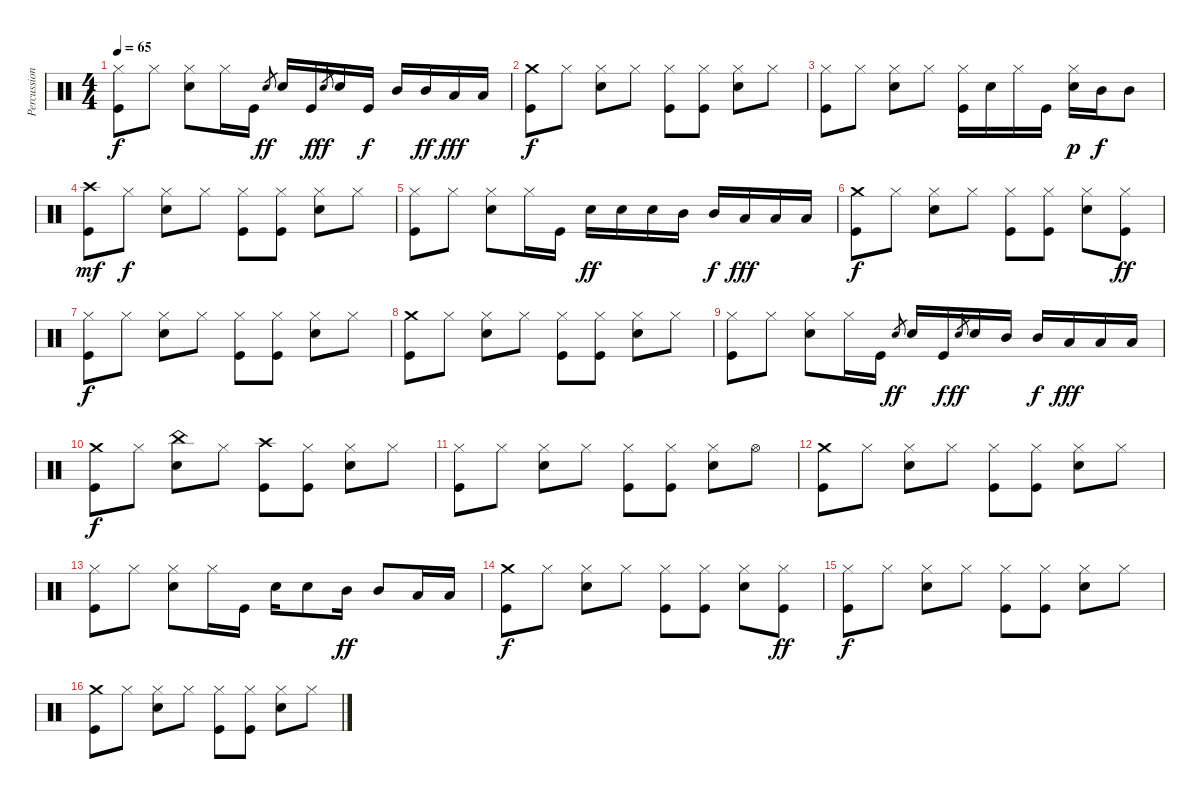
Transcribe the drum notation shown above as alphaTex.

\track ("Percussion" "Percussion") {instrument percussion}
\staff {score}
\articulation defaults
\ts (4 4)
\tempo 65
\clef neutral
\ks c
("Hi-Hat (closed)" "Kick (hit)").8{dy f} "Hi-Hat (closed)".8 ("Hi-Hat (closed)" "Electric Snare (hit)").8 "Hi-Hat (closed)".16 "Kick (hit)".16 "Electric Snare (hit)".8{gr dy ff} "Electric Snare (hit)".16 "Kick (hit)".16{dy f} "Electric Snare (hit)".8{gr dy ff} "Electric Snare (hit)".16 "Kick (hit)".16{dy f} "Mid Tom (hit)".16 "Mid Tom (hit)".16{dy ff} "Low Tom (hit)".16{dy fff} "Low Tom (hit)".16 |
("Crash medium (hit)" "Kick (hit)").8{dy f} "Hi-Hat (closed)".8 ("Hi-Hat (closed)" "Electric Snare (hit)").8 "Hi-Hat (closed)".8 ("Hi-Hat (closed)" "Kick (hit)").8 ("Hi-Hat (closed)" "Kick (hit)").8 ("Hi-Hat (closed)" "Electric Snare (hit)").8 "Hi-Hat (closed)".8 |
("Hi-Hat (closed)" "Kick (hit)").8 "Hi-Hat (closed)".8 ("Hi-Hat (closed)" "Electric Snare (hit)").8 "Hi-Hat (closed)".8 ("Hi-Hat (closed)" "Kick (hit)").16 "Electric Snare (hit)".16 "Hi-Hat (closed)".16 "Kick (hit)".16 ("Hi-Hat (closed)" "Electric Snare (hit)").16{dy p} "Mid Tom (hit)".16{dy f} "Mid Tom (hit)".8 |
("Crash high (hit)" "Kick (hit)").8{dy mf} "Hi-Hat (closed)".8{dy f} ("Hi-Hat (closed)" "Electric Snare (hit)").8 "Hi-Hat (closed)".8 ("Hi-Hat (closed)" "Kick (hit)").8 ("Hi-Hat (closed)" "Kick (hit)").8 ("Hi-Hat (closed)" "Electric Snare (hit)").8 "Hi-Hat (closed)".8 |
("Hi-Hat (closed)" "Kick (hit)").8 "Hi-Hat (closed)".8 ("Hi-Hat (closed)" "Electric Snare (hit)").8 "Hi-Hat (closed)".16 "Kick (hit)".16 "Electric Snare (hit)".16{dy ff} "Electric Snare (hit)".16 "Electric Snare (hit)".16 "Mid Tom (hit)".16 "Mid Tom (hit)".16{dy f} "Low Tom (hit)".16{dy fff} "Low Tom (hit)".16 "Low Floor Tom (hit)".16 |
("Crash medium (hit)" "Kick (hit)").8{dy f} "Hi-Hat (closed)".8 ("Hi-Hat (closed)" "Electric Snare (hit)").8 "Hi-Hat (closed)".8 ("Hi-Hat (closed)" "Kick (hit)").8 ("Hi-Hat (closed)" "Kick (hit)").8 ("Hi-Hat (closed)" "Electric Snare (hit)").8 ("Hi-Hat (closed)" "Kick (hit)").8{dy ff} |
("Hi-Hat (closed)" "Kick (hit)").8{dy f} "Hi-Hat (closed)".8 ("Hi-Hat (closed)" "Electric Snare (hit)").8 "Hi-Hat (closed)".8 ("Hi-Hat (closed)" "Kick (hit)").8 ("Hi-Hat (closed)" "Kick (hit)").8 ("Hi-Hat (closed)" "Electric Snare (hit)").8 "Hi-Hat (closed)".8 |
("Crash medium (hit)" "Kick (hit)").8 "Hi-Hat (closed)".8 ("Hi-Hat (closed)" "Electric Snare (hit)").8 "Hi-Hat (closed)".8 ("Hi-Hat (closed)" "Kick (hit)").8 ("Hi-Hat (closed)" "Kick (hit)").8 ("Hi-Hat (closed)" "Electric Snare (hit)").8 "Hi-Hat (closed)".8 |
("Hi-Hat (closed)" "Kick (hit)").8 "Hi-Hat (closed)".8 ("Hi-Hat (closed)" "Electric Snare (hit)").8 "Hi-Hat (closed)".16 "Kick (hit)".16 "Electric Snare (hit)".8{gr dy ff} "Electric Snare (hit)".16 "Kick (hit)".16{dy f} "Electric Snare (hit)".8{gr dy ff} "Electric Snare (hit)".16 "Mid Tom (hit)".16 "Mid Tom (hit)".16{dy f} "Low Tom (hit)".16{dy fff} "Low Tom (hit)".16 "Low Floor Tom (hit)".16 |
("Crash medium (hit)" "Kick (hit)").8{dy f} "Hi-Hat (closed)".8 ("China (hit)" "Electric Snare (hit)").8 "Hi-Hat (closed)".8 ("Crash high (hit)" "Kick (hit)").8 ("Hi-Hat (closed)" "Kick (hit)").8 ("Hi-Hat (closed)" "Electric Snare (hit)").8 "Hi-Hat (closed)".8 |
("Hi-Hat (closed)" "Kick (hit)").8 "Hi-Hat (closed)".8 ("Hi-Hat (closed)" "Electric Snare (hit)").8 "Hi-Hat (closed)".8 ("Hi-Hat (closed)" "Kick (hit)").8 ("Hi-Hat (closed)" "Kick (hit)").8 ("Hi-Hat (closed)" "Electric Snare (hit)").8 "Hi-Hat (open)".8 |
("Crash medium (hit)" "Kick (hit)").8 "Hi-Hat (closed)".8 ("Hi-Hat (closed)" "Electric Snare (hit)").8 "Hi-Hat (closed)".8 ("Hi-Hat (closed)" "Kick (hit)").8 ("Hi-Hat (closed)" "Kick (hit)").8 ("Hi-Hat (closed)" "Electric Snare (hit)").8 "Hi-Hat (closed)".8 |
("Hi-Hat (closed)" "Kick (hit)").8 "Hi-Hat (closed)".8 ("Hi-Hat (closed)" "Electric Snare (hit)").8 "Hi-Hat (closed)".16 "Kick (hit)".16 "Electric Snare (hit)".16 "Electric Snare (hit)".8 "Mid Tom (hit)".16{dy ff} "Mid Tom (hit)".8 "Low Floor Tom (hit)".16 "Low Floor Tom (hit)".16 |
("Crash medium (hit)" "Kick (hit)").8{dy f} "Hi-Hat (closed)".8 ("Hi-Hat (closed)" "Electric Snare (hit)").8 "Hi-Hat (closed)".8 ("Hi-Hat (closed)" "Kick (hit)").8 ("Hi-Hat (closed)" "Kick (hit)").8 ("Hi-Hat (closed)" "Electric Snare (hit)").8 ("Hi-Hat (closed)" "Kick (hit)").8{dy ff} |
("Hi-Hat (closed)" "Kick (hit)").8{dy f} "Hi-Hat (closed)".8 ("Hi-Hat (closed)" "Electric Snare (hit)").8 "Hi-Hat (closed)".8 ("Hi-Hat (closed)" "Kick (hit)").8 ("Hi-Hat (closed)" "Kick (hit)").8 ("Hi-Hat (closed)" "Electric Snare (hit)").8 "Hi-Hat (closed)".8 |
("Crash medium (hit)" "Kick (hit)").8 "Hi-Hat (closed)".8 ("Hi-Hat (closed)" "Electric Snare (hit)").8 "Hi-Hat (closed)".8 ("Hi-Hat (closed)" "Kick (hit)").8 ("Hi-Hat (closed)" "Kick (hit)").8 ("Hi-Hat (closed)" "Electric Snare (hit)").8 "Hi-Hat (closed)".8
